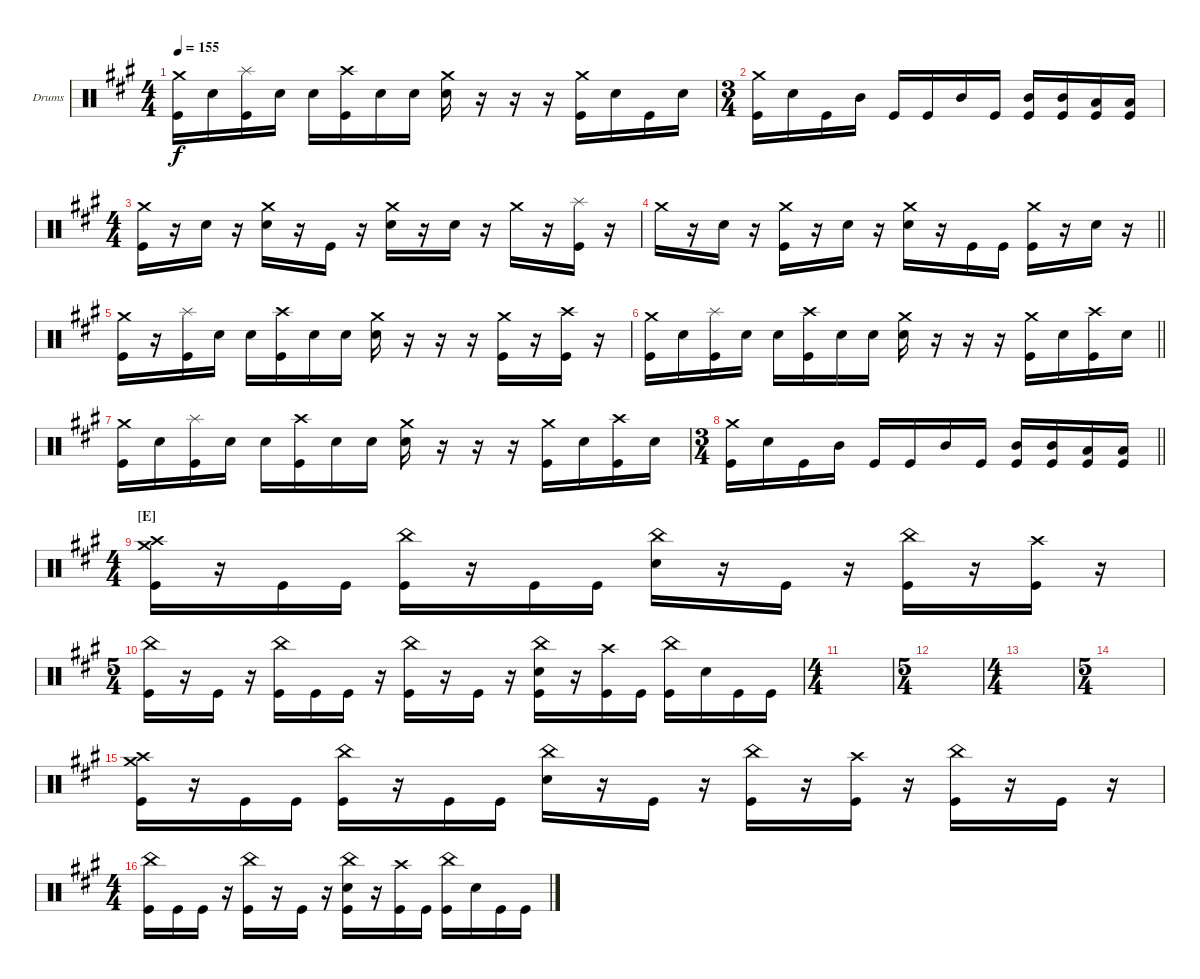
\bracketExtendMode groupsimilarinstruments
\firstSystemTrackNameOrientation horizontal
\otherSystemsTrackNameOrientation horizontal
\track ("Drumkit" "Drums") {instrument percussion}
\staff {score}
\articulation defaults
\ts (4 4)
\tempo 155
\clef neutral
\ks a
("Crash medium (hit)" "Kick (hit)").16{dy f} "Snare (hit) 2".16 ("Splash (hit)" "Kick (hit)").16 "Snare (hit) 2".16 "Snare (hit) 2".16 ("Crash high (hit)" "Kick (hit)").16 "Snare (hit) 2".16 "Snare (hit) 2".16 ("Crash medium (hit)" "Snare (hit) 2").16 r.16 r.16 r.16 ("Crash medium (hit)" "Kick (hit)").16 "Snare (hit) 2".16 "Kick (hit)".16 "Snare (hit) 2".16 |
\ts (3 4)
\beaming (8 2 2 2 2 2)
("Crash medium (hit)" "Kick (hit)").16 "Snare (hit) 2".16 "Kick (hit)".16 "Mid Tom (hit)".16 "Kick (hit)".16 "Kick (hit)".16 "Mid Tom (hit)".16 "Kick (hit)".16 ("Mid Tom (hit)" "Kick (hit)").16 ("Mid Tom (hit)" "Kick (hit)").16 ("Low Tom (hit)" "Kick (hit)").16 ("Low Tom (hit)" "Kick (hit)").16 |
\ts (4 4)
\beaming (8 2 2 2 2 2)
("Crash medium (hit)" "Kick (hit)").16 r.16 "Snare (hit) 2".16 r.16 ("Crash medium (hit)" "Snare (hit) 2").16 r.16 "Kick (hit)".16 r.16 ("Crash medium (hit)" "Snare (hit) 2").16 r.16 "Snare (hit) 2".16 r.16 "Crash medium (hit)".16 r.16 ("Splash (hit)" "Kick (hit)").16 r.16 |
\barLineRight lightlight "Crash medium (hit)".16
r.16 "Snare (hit) 2".16 r.16 ("Crash medium (hit)" "Kick (hit)").16 r.16 "Snare (hit) 2".16 r.16 ("Crash medium (hit)" "Snare (hit) 2").16 r.16 "Kick (hit)".16 "Kick (hit)".16 ("Crash medium (hit)" "Kick (hit)").16 r.16 "Snare (hit) 2".16 r.16 |
("Crash medium (hit)" "Kick (hit)").16 r.16 ("Splash (hit)" "Kick (hit)").16 "Snare (hit) 2".16 "Snare (hit) 2".16 ("Crash high (hit)" "Kick (hit)").16 "Snare (hit) 2".16 "Snare (hit) 2".16 ("Crash medium (hit)" "Snare (hit) 2").16 r.16 r.16 r.16 ("Crash medium (hit)" "Kick (hit)").16 r.16 ("Crash high (hit)" "Kick (hit)").16 r.16 |
\barLineRight lightlight
("Crash medium (hit)" "Kick (hit)").16 "Snare (hit) 2".16 ("Splash (hit)" "Kick (hit)").16 "Snare (hit) 2".16 "Snare (hit) 2".16 ("Crash high (hit)" "Kick (hit)").16 "Snare (hit) 2".16 "Snare (hit) 2".16 ("Crash medium (hit)" "Snare (hit) 2").16 r.16 r.16 r.16 ("Crash medium (hit)" "Kick (hit)").16 "Snare (hit) 2".16 ("Crash high (hit)" "Kick (hit)").16 "Snare (hit) 2".16 |
("Crash medium (hit)" "Kick (hit)").16 "Snare (hit) 2".16 ("Splash (hit)" "Kick (hit)").16 "Snare (hit) 2".16 "Snare (hit) 2".16 ("Crash high (hit)" "Kick (hit)").16 "Snare (hit) 2".16 "Snare (hit) 2".16 ("Crash medium (hit)" "Snare (hit) 2").16 r.16 r.16 r.16 ("Crash medium (hit)" "Kick (hit)").16 "Snare (hit) 2".16 ("Crash high (hit)" "Kick (hit)").16 "Snare (hit) 2".16 |
\ts (3 4)
\beaming (8 2 2 2 2 2)
\barLineRight lightlight
("Crash medium (hit)" "Kick (hit)").16 "Snare (hit) 2".16 "Kick (hit)".16 "Mid Tom (hit)".16 "Kick (hit)".16 "Kick (hit)".16 "Mid Tom (hit)".16 "Kick (hit)".16 ("Mid Tom (hit)" "Kick (hit)").16 ("Mid Tom (hit)" "Kick (hit)").16 ("Low Tom (hit)" "Kick (hit)").16 ("Low Tom (hit)" "Kick (hit)").16 |
\ts (4 4)
\section ("E" "")
("Crash medium (hit)" "Crash high (hit)" "Kick (hit)").16 r.16 "Kick (hit)".16 "Kick (hit)".16 ("China (hit)" "Kick (hit)").16 r.16 "Kick (hit)".16 "Kick (hit)".16 ("China (hit)" "Snare (hit) 2").16 r.16 "Kick (hit)".16 r.16 ("China (hit)" "Kick (hit)").16 r.16 ("Crash high (hit)" "Kick (hit)").16 r.16 |
\ts (5 4)
("China (hit)" "Kick (hit)").16 r.16 "Kick (hit)".16 r.16 ("China (hit)" "Kick (hit)").16 "Kick (hit)".16 "Kick (hit)".16 r.16 ("China (hit)" "Kick (hit)").16 r.16 "Kick (hit)".16 r.16 ("China (hit)" "Snare (hit) 2" "Kick (hit)").16 r.16 ("Crash high (hit)" "Kick (hit)").16 "Kick (hit)".16 ("China (hit)" "Kick (hit)").16 "Snare (hit) 2".16 "Kick (hit)".16 "Kick (hit)".16 |
\ts (4 4)
|
\ts (5 4)
|
\ts (4 4)
|
\ts (5 4)
|
("Crash medium (hit)" "Crash high (hit)" "Kick (hit)").16 r.16 "Kick (hit)".16 "Kick (hit)".16 ("China (hit)" "Kick (hit)").16 r.16 "Kick (hit)".16 "Kick (hit)".16 ("China (hit)" "Snare (hit) 2").16 r.16 "Kick (hit)".16 r.16 ("China (hit)" "Kick (hit)").16 r.16 ("Crash high (hit)" "Kick (hit)").16 r.16 ("China (hit)" "Kick (hit)").16 r.16 "Kick (hit)".16 r.16 |
\ts (4 4)
("China (hit)" "Kick (hit)").16 "Kick (hit)".16 "Kick (hit)".16 r.16 ("China (hit)" "Kick (hit)").16 r.16 "Kick (hit)".16 r.16 ("China (hit)" "Snare (hit) 2" "Kick (hit)").16 r.16 ("Crash high (hit)" "Kick (hit)").16 "Kick (hit)".16 ("China (hit)" "Kick (hit)").16 "Snare (hit) 2".16 "Kick (hit)".16 "Kick (hit)".16
